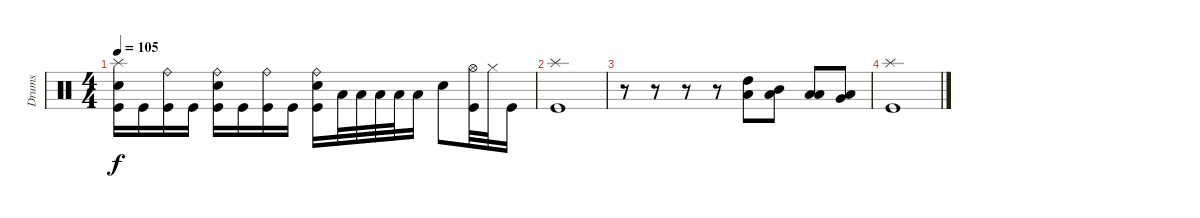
\track ("Drums" "Drums") {instrument percussion}
\staff {score}
\articulation defaults
\ts (4 4)
\tempo 105
\clef neutral
\ks c
("Kick (hit)" "Electric Snare (hit)" "Splash (hit)").16{dy f} "Kick (hit)".16 ("Kick (hit)" "Ride (bell)").16 "Kick (hit)".16 ("Kick (hit)" "Electric Snare (hit)" "Ride (bell)").16 "Kick (hit)".16 ("Kick (hit)" "Ride (bell)").16 "Kick (hit)".16 ("Kick (hit)" "Electric Snare (hit)" "Ride (bell)").16 "Low Tom (hit)".32 "Low Tom (hit)".32 "Low Tom (hit)".32 "Low Tom (hit)".32 "Low Tom (hit)".16 "Electric Snare (hit)".8 ("Kick (hit)" "Hi-Hat (open)").32 "Hi-Hat (closed)".32 "Kick (hit)".16 |
("Kick (hit)" "Splash (hit)").1 |
r.8 r.8 r.8 r.8 ("Low Floor Tom (hit)" "High Tom (hit)").8 ("Low Floor Tom (hit)" "Mid Tom (hit)").8 ("Low Floor Tom (hit)" "Low Tom (hit)").8 ("Low Floor Tom (hit)" "Very Low Tom (hit)").8 |
("Kick (hit)" "Splash (hit)").1
